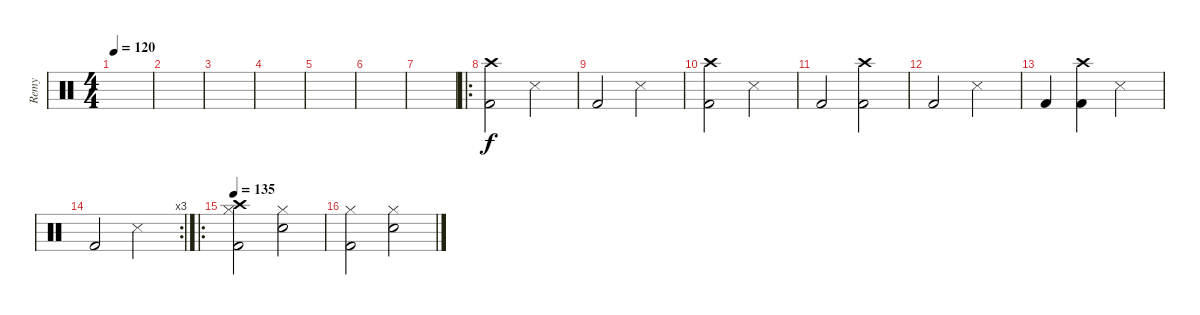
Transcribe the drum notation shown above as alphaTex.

\track ("Remy" "Remy") {instrument percussion}
\staff {score}
\articulation defaults
\ts (4 4)
\tempo 120
\clef neutral
\ks c
|
|
|
|
|
|
|
\ro
("Crash high (hit)" "Kick (hit) 2").2 "Snare (side stick) 3".2 |
"Kick (hit) 2".2 "Snare (side stick) 3".2 |
("Crash high (hit)" "Kick (hit) 2").2 "Snare (side stick) 3".2 |
"Kick (hit) 2".2 ("Crash high (hit)" "Kick (hit) 2").2 |
"Kick (hit) 2".2 "Snare (side stick) 3".2 |
"Kick (hit) 2".4 ("Crash high (hit)" "Kick (hit) 2").4 "Snare (side stick) 3".2 |
\rc 3 "Kick (hit) 2".2 "Snare (side stick) 3".2
|
\ro
\tempo 135
("Crash high (hit)" "Hi-Hat (closed)" "Kick (hit) 2").2 ("Snare (hit) 2" "Hi-Hat (closed)").2 |
("Hi-Hat (closed)" "Kick (hit) 2").2 ("Snare (hit) 2" "Hi-Hat (closed)").2
